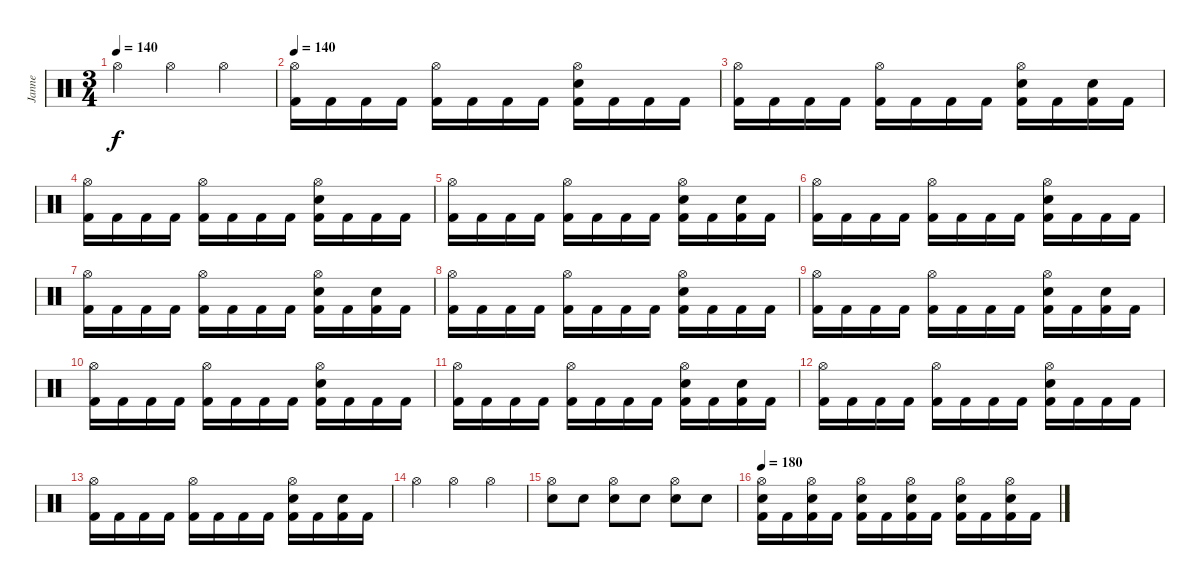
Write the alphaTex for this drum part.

\track ("Janne" "Janne") {instrument percussion}
\staff {score}
\articulation defaults
\ts (3 4)
\tempo 140
\clef neutral
\ks c "Hi-Hat (open)".4{dy f} "Hi-Hat (open)".4 "Hi-Hat (open)".4
|
\tempo 140
("Hi-Hat (open)" "Kick (hit) 2").16 "Kick (hit) 2".16 "Kick (hit) 2".16 "Kick (hit) 2".16 ("Hi-Hat (open)" "Kick (hit) 2").16 "Kick (hit) 2".16 "Kick (hit) 2".16 "Kick (hit) 2".16 ("Hi-Hat (open)" "Electric Snare (hit)" "Kick (hit) 2").16 "Kick (hit) 2".16 "Kick (hit) 2".16 "Kick (hit) 2".16 |
("Hi-Hat (open)" "Kick (hit) 2").16 "Kick (hit) 2".16 "Kick (hit) 2".16 "Kick (hit) 2".16 ("Hi-Hat (open)" "Kick (hit) 2").16 "Kick (hit) 2".16 "Kick (hit) 2".16 "Kick (hit) 2".16 ("Hi-Hat (open)" "Electric Snare (hit)" "Kick (hit) 2").16 "Kick (hit) 2".16 ("Electric Snare (hit)" "Kick (hit) 2").16 "Kick (hit) 2".16 |
("Hi-Hat (open)" "Kick (hit) 2").16 "Kick (hit) 2".16 "Kick (hit) 2".16 "Kick (hit) 2".16 ("Hi-Hat (open)" "Kick (hit) 2").16 "Kick (hit) 2".16 "Kick (hit) 2".16 "Kick (hit) 2".16 ("Hi-Hat (open)" "Electric Snare (hit)" "Kick (hit) 2").16 "Kick (hit) 2".16 "Kick (hit) 2".16 "Kick (hit) 2".16 |
("Hi-Hat (open)" "Kick (hit) 2").16 "Kick (hit) 2".16 "Kick (hit) 2".16 "Kick (hit) 2".16 ("Hi-Hat (open)" "Kick (hit) 2").16 "Kick (hit) 2".16 "Kick (hit) 2".16 "Kick (hit) 2".16 ("Hi-Hat (open)" "Electric Snare (hit)" "Kick (hit) 2").16 "Kick (hit) 2".16 ("Electric Snare (hit)" "Kick (hit) 2").16 "Kick (hit) 2".16 |
("Hi-Hat (open)" "Kick (hit) 2").16 "Kick (hit) 2".16 "Kick (hit) 2".16 "Kick (hit) 2".16 ("Hi-Hat (open)" "Kick (hit) 2").16 "Kick (hit) 2".16 "Kick (hit) 2".16 "Kick (hit) 2".16 ("Hi-Hat (open)" "Electric Snare (hit)" "Kick (hit) 2").16 "Kick (hit) 2".16 "Kick (hit) 2".16 "Kick (hit) 2".16 |
("Hi-Hat (open)" "Kick (hit) 2").16 "Kick (hit) 2".16 "Kick (hit) 2".16 "Kick (hit) 2".16 ("Hi-Hat (open)" "Kick (hit) 2").16 "Kick (hit) 2".16 "Kick (hit) 2".16 "Kick (hit) 2".16 ("Hi-Hat (open)" "Electric Snare (hit)" "Kick (hit) 2").16 "Kick (hit) 2".16 ("Electric Snare (hit)" "Kick (hit) 2").16 "Kick (hit) 2".16 |
("Hi-Hat (open)" "Kick (hit) 2").16 "Kick (hit) 2".16 "Kick (hit) 2".16 "Kick (hit) 2".16 ("Hi-Hat (open)" "Kick (hit) 2").16 "Kick (hit) 2".16 "Kick (hit) 2".16 "Kick (hit) 2".16 ("Hi-Hat (open)" "Electric Snare (hit)" "Kick (hit) 2").16 "Kick (hit) 2".16 "Kick (hit) 2".16 "Kick (hit) 2".16 |
("Hi-Hat (open)" "Kick (hit) 2").16 "Kick (hit) 2".16 "Kick (hit) 2".16 "Kick (hit) 2".16 ("Hi-Hat (open)" "Kick (hit) 2").16 "Kick (hit) 2".16 "Kick (hit) 2".16 "Kick (hit) 2".16 ("Hi-Hat (open)" "Electric Snare (hit)" "Kick (hit) 2").16 "Kick (hit) 2".16 ("Electric Snare (hit)" "Kick (hit) 2").16 "Kick (hit) 2".16 |
("Hi-Hat (open)" "Kick (hit) 2").16 "Kick (hit) 2".16 "Kick (hit) 2".16 "Kick (hit) 2".16 ("Hi-Hat (open)" "Kick (hit) 2").16 "Kick (hit) 2".16 "Kick (hit) 2".16 "Kick (hit) 2".16 ("Hi-Hat (open)" "Electric Snare (hit)" "Kick (hit) 2").16 "Kick (hit) 2".16 "Kick (hit) 2".16 "Kick (hit) 2".16 |
("Hi-Hat (open)" "Kick (hit) 2").16 "Kick (hit) 2".16 "Kick (hit) 2".16 "Kick (hit) 2".16 ("Hi-Hat (open)" "Kick (hit) 2").16 "Kick (hit) 2".16 "Kick (hit) 2".16 "Kick (hit) 2".16 ("Hi-Hat (open)" "Electric Snare (hit)" "Kick (hit) 2").16 "Kick (hit) 2".16 ("Electric Snare (hit)" "Kick (hit) 2").16 "Kick (hit) 2".16 |
("Hi-Hat (open)" "Kick (hit) 2").16 "Kick (hit) 2".16 "Kick (hit) 2".16 "Kick (hit) 2".16 ("Hi-Hat (open)" "Kick (hit) 2").16 "Kick (hit) 2".16 "Kick (hit) 2".16 "Kick (hit) 2".16 ("Hi-Hat (open)" "Electric Snare (hit)" "Kick (hit) 2").16 "Kick (hit) 2".16 "Kick (hit) 2".16 "Kick (hit) 2".16 |
("Hi-Hat (open)" "Kick (hit) 2").16 "Kick (hit) 2".16 "Kick (hit) 2".16 "Kick (hit) 2".16 ("Hi-Hat (open)" "Kick (hit) 2").16 "Kick (hit) 2".16 "Kick (hit) 2".16 "Kick (hit) 2".16 ("Hi-Hat (open)" "Electric Snare (hit)" "Kick (hit) 2").16 "Kick (hit) 2".16 ("Electric Snare (hit)" "Kick (hit) 2").16 "Kick (hit) 2".16 |
"Hi-Hat (open)".4 "Hi-Hat (open)".4 "Hi-Hat (open)".4 |
("Hi-Hat (open)" "Electric Snare (hit)").8 "Electric Snare (hit)".8 ("Hi-Hat (open)" "Electric Snare (hit)").8 "Electric Snare (hit)".8 ("Hi-Hat (open)" "Electric Snare (hit)").8 "Electric Snare (hit)".8 |
\tempo 180
("Hi-Hat (open)" "Electric Snare (hit)" "Kick (hit) 2").16 "Kick (hit) 2".16 ("Hi-Hat (open)" "Electric Snare (hit)" "Kick (hit) 2").16 "Kick (hit) 2".16 ("Hi-Hat (open)" "Electric Snare (hit)" "Kick (hit) 2").16 "Kick (hit) 2".16 ("Hi-Hat (open)" "Electric Snare (hit)" "Kick (hit) 2").16 "Kick (hit) 2".16 ("Hi-Hat (open)" "Electric Snare (hit)" "Kick (hit) 2").16 "Kick (hit) 2".16 ("Hi-Hat (open)" "Electric Snare (hit)" "Kick (hit) 2").16 "Kick (hit) 2".16
